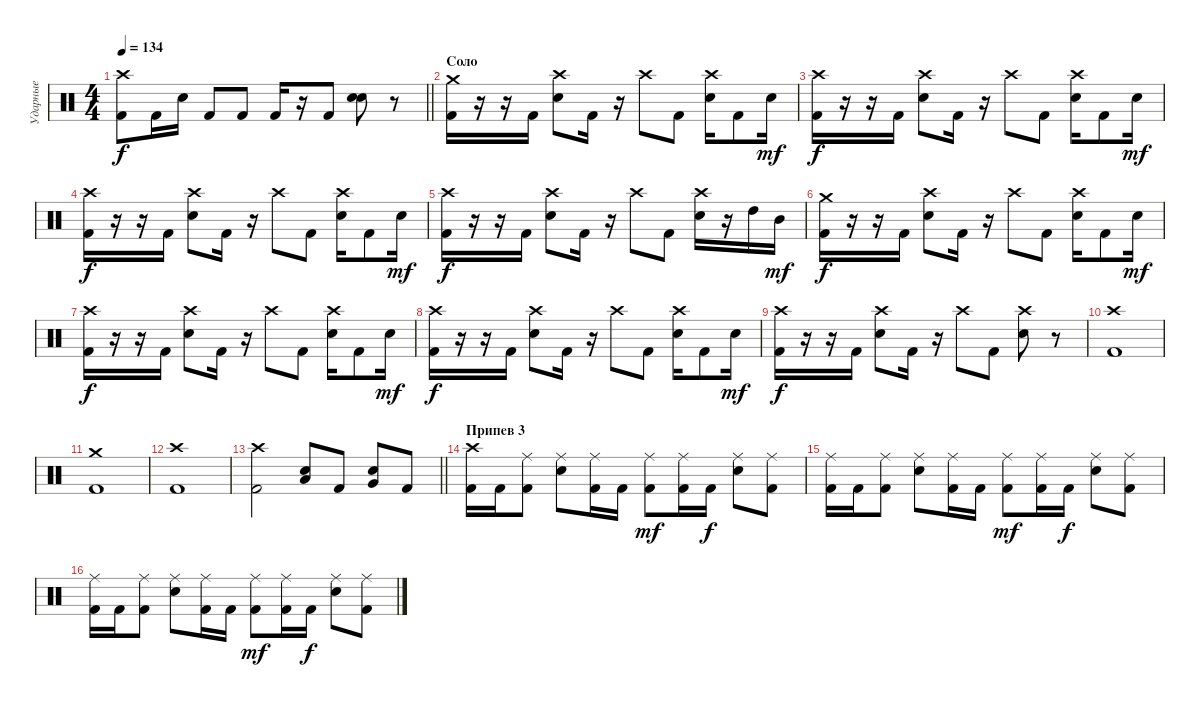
\track ("Ударные" "Ударные") {instrument percussion}
\staff {score}
\articulation defaults
\ts (4 4)
\tempo 134
\clef neutral
\barLineRight lightlight
\ks c
("Crash high (hit)" "Kick (hit) 2").8{dy f} "Kick (hit) 2".16 "Snare (hit) 2".16 "Kick (hit) 2".8 "Kick (hit) 2".8 "Kick (hit) 2".16 r.16 "Kick (hit) 2".8 ("Snare (hit) 2" "Snare (hit) 2").8 r.8 |
\section ("" "Соло")
("Crash medium (hit)" "Kick (hit) 2").16 r.16 r.16 "Kick (hit) 2".16 ("Crash high (hit)" "Snare (hit) 2").8 "Kick (hit) 2".16 r.16 "Crash high (hit)".8 "Kick (hit) 2".8 ("Crash high (hit)" "Snare (hit) 2").16 "Kick (hit) 2".8 "Snare (hit) 2".16{dy mf} |
("Crash high (hit)" "Kick (hit) 2").16{dy f} r.16 r.16 "Kick (hit) 2".16 ("Crash high (hit)" "Snare (hit) 2").8 "Kick (hit) 2".16 r.16 "Crash high (hit)".8 "Kick (hit) 2".8 ("Crash high (hit)" "Snare (hit) 2").16 "Kick (hit) 2".8 "Snare (hit) 2".16{dy mf} |
("Crash high (hit)" "Kick (hit) 2").16{dy f} r.16 r.16 "Kick (hit) 2".16 ("Crash high (hit)" "Snare (hit) 2").8 "Kick (hit) 2".16 r.16 "Crash high (hit)".8 "Kick (hit) 2".8 ("Crash high (hit)" "Snare (hit) 2").16 "Kick (hit) 2".8 "Snare (hit) 2".16{dy mf} |
("Crash high (hit)" "Kick (hit) 2").16{dy f} r.16 r.16 "Kick (hit) 2".16 ("Crash high (hit)" "Snare (hit) 2").8 "Kick (hit) 2".16 r.16 "Crash high (hit)".8 "Kick (hit) 2".8 ("Crash high (hit)" "Snare (hit) 2").16 r.16 "High Tom (hit)".16 "Mid Tom (hit)".16{dy mf} |
("Crash medium (hit)" "Kick (hit) 2").16{dy f} r.16 r.16 "Kick (hit) 2".16 ("Crash high (hit)" "Snare (hit) 2").8 "Kick (hit) 2".16 r.16 "Crash high (hit)".8 "Kick (hit) 2".8 ("Crash high (hit)" "Snare (hit) 2").16 "Kick (hit) 2".8 "Snare (hit) 2".16{dy mf} |
("Crash high (hit)" "Kick (hit) 2").16{dy f} r.16 r.16 "Kick (hit) 2".16 ("Crash high (hit)" "Snare (hit) 2").8 "Kick (hit) 2".16 r.16 "Crash high (hit)".8 "Kick (hit) 2".8 ("Crash high (hit)" "Snare (hit) 2").16 "Kick (hit) 2".8 "Snare (hit) 2".16{dy mf} |
("Crash high (hit)" "Kick (hit) 2").16{dy f} r.16 r.16 "Kick (hit) 2".16 ("Crash high (hit)" "Snare (hit) 2").8 "Kick (hit) 2".16 r.16 "Crash high (hit)".8 "Kick (hit) 2".8 ("Crash high (hit)" "Snare (hit) 2").16 "Kick (hit) 2".8 "Snare (hit) 2".16{dy mf} |
("Crash high (hit)" "Kick (hit) 2").16{dy f} r.16 r.16 "Kick (hit) 2".16 ("Crash high (hit)" "Snare (hit) 2").8 "Kick (hit) 2".16 r.16 "Crash high (hit)".8 "Kick (hit) 2".8 ("Crash high (hit)" "Snare (hit) 2").8 r.8 |
("Crash high (hit)" "Kick (hit) 2").1 |
("Crash medium (hit)" "Kick (hit) 2").1 |
("Crash high (hit)" "Kick (hit) 2").1 |
\barLineRight lightlight
("Crash high (hit)" "Kick (hit) 2").2 ("Low Tom (hit)" "Snare (hit) 2").8 "Kick (hit) 2".8 ("Very Low Tom (hit)" "Snare (hit) 2").8 "Kick (hit) 2".8 |
\section ("" "Припев 3")
("Crash high (hit)" "Kick (hit) 2").16 "Kick (hit) 2".16 ("Ride (middle)" "Kick (hit) 2").8 ("Ride (middle)" "Snare (hit) 2").8 ("Ride (middle)" "Kick (hit) 2").16 "Kick (hit) 2".16 ("Ride (middle)" "Kick (hit) 2").8{dy mf} ("Ride (middle)" "Kick (hit) 2").16 "Kick (hit) 2".16{dy f} ("Ride (middle)" "Snare (hit) 2").8 ("Ride (middle)" "Kick (hit) 2").8 |
("Ride (middle)" "Kick (hit) 2").16 "Kick (hit) 2".16 ("Ride (middle)" "Kick (hit) 2").8 ("Ride (middle)" "Snare (hit) 2").8 ("Ride (middle)" "Kick (hit) 2").16 "Kick (hit) 2".16 ("Ride (middle)" "Kick (hit) 2").8{dy mf} ("Ride (middle)" "Kick (hit) 2").16 "Kick (hit) 2".16{dy f} ("Ride (middle)" "Snare (hit) 2").8 ("Ride (middle)" "Kick (hit) 2").8 |
("Ride (middle)" "Kick (hit) 2").16 "Kick (hit) 2".16 ("Ride (middle)" "Kick (hit) 2").8 ("Ride (middle)" "Snare (hit) 2").8 ("Ride (middle)" "Kick (hit) 2").16 "Kick (hit) 2".16 ("Ride (middle)" "Kick (hit) 2").8{dy mf} ("Ride (middle)" "Kick (hit) 2").16 "Kick (hit) 2".16{dy f} ("Ride (middle)" "Snare (hit) 2").8 ("Ride (middle)" "Kick (hit) 2").8
